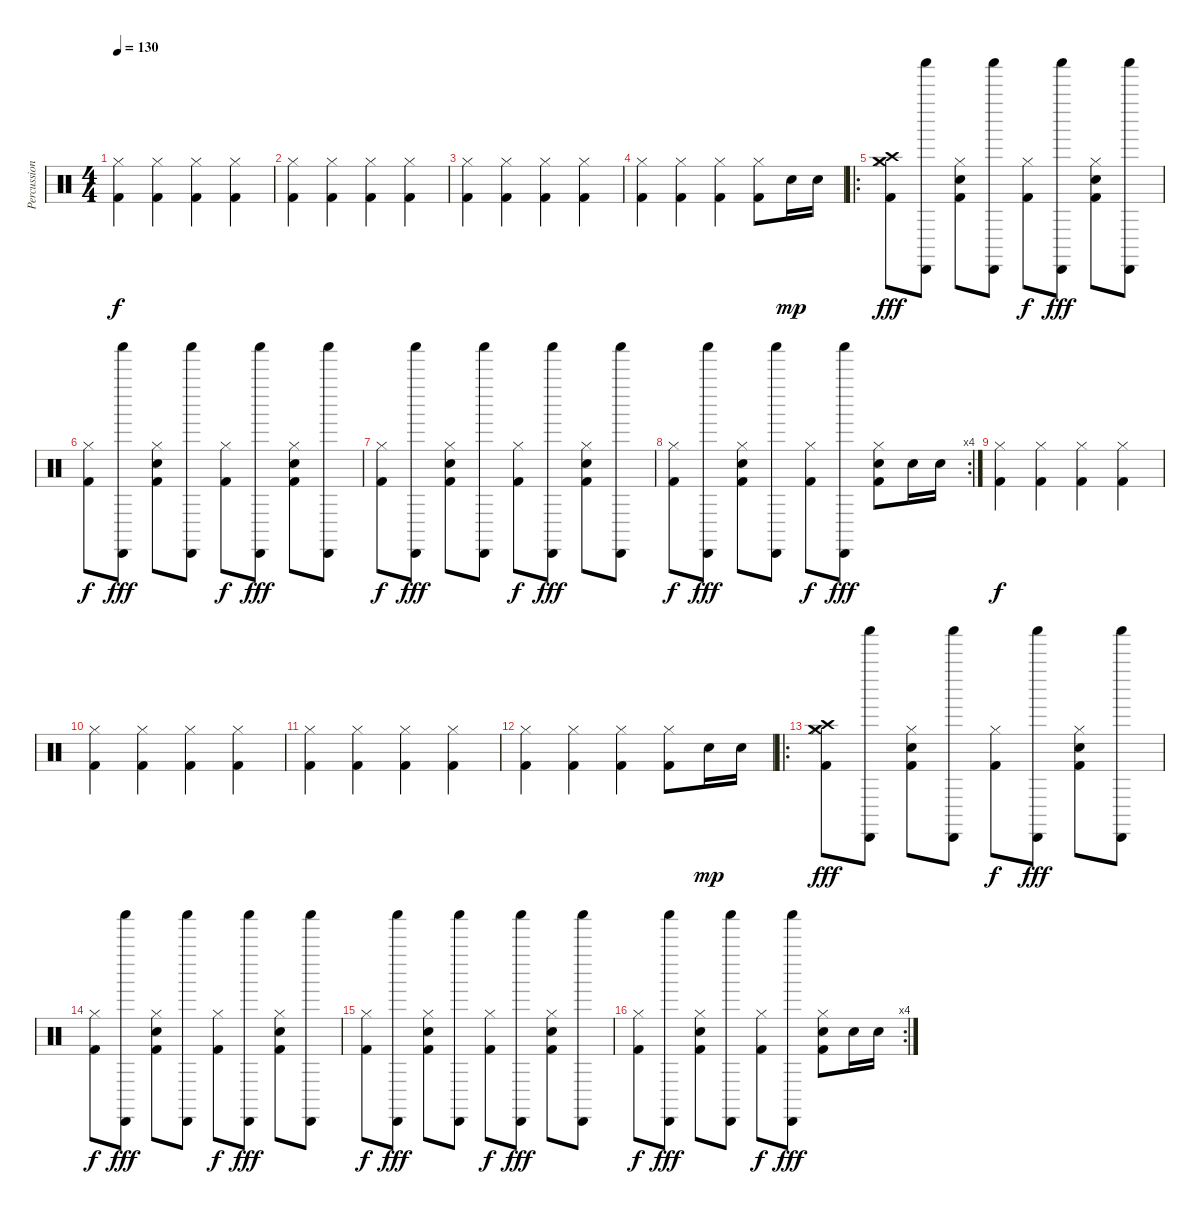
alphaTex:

\track ("Percussion" "Percussion") {instrument percussion}
\staff {score}
\articulation defaults
\ts (4 4)
\tempo 130
\clef neutral
\ks c
("Hi-Hat (closed)" "Kick (hit) 2").4{dy f} ("Hi-Hat (closed)" "Kick (hit) 2").4 ("Hi-Hat (closed)" "Kick (hit) 2").4 ("Hi-Hat (closed)" "Kick (hit) 2").4 |
("Hi-Hat (closed)" "Kick (hit) 2").4 ("Hi-Hat (closed)" "Kick (hit) 2").4 ("Hi-Hat (closed)" "Kick (hit) 2").4 ("Hi-Hat (closed)" "Kick (hit) 2").4 |
("Hi-Hat (closed)" "Kick (hit) 2").4 ("Hi-Hat (closed)" "Kick (hit) 2").4 ("Hi-Hat (closed)" "Kick (hit) 2").4 ("Hi-Hat (closed)" "Kick (hit) 2").4 |
("Hi-Hat (closed)" "Kick (hit) 2").4 ("Hi-Hat (closed)" "Kick (hit) 2").4 ("Hi-Hat (closed)" "Kick (hit) 2").4 ("Hi-Hat (closed)" "Kick (hit) 2").8 "Electric Snare (hit)".16{dy mp} "Electric Snare (hit)".16 |
\ro
("Crash medium (hit)" "Crash high (hit)" "Hi-Hat (closed)" "Kick (hit) 2").8{dy fff} ("Shaker (hit)" "Cabasa (hit)").8 ("Electric Snare (hit)" "Hi-Hat (closed)" "Kick (hit) 2").8 ("Shaker (hit)" "Cabasa (hit)").8 ("Hi-Hat (closed)" "Kick (hit) 2").8{dy f} ("Shaker (hit)" "Cabasa (hit)").8{dy fff} ("Electric Snare (hit)" "Hi-Hat (closed)" "Kick (hit) 2").8 ("Shaker (hit)" "Cabasa (hit)").8 |
("Hi-Hat (closed)" "Kick (hit) 2").8{dy f} ("Shaker (hit)" "Cabasa (hit)").8{dy fff} ("Electric Snare (hit)" "Hi-Hat (closed)" "Kick (hit) 2").8 ("Shaker (hit)" "Cabasa (hit)").8 ("Hi-Hat (closed)" "Kick (hit) 2").8{dy f} ("Shaker (hit)" "Cabasa (hit)").8{dy fff} ("Electric Snare (hit)" "Hi-Hat (closed)" "Kick (hit) 2").8 ("Shaker (hit)" "Cabasa (hit)").8 |
("Hi-Hat (closed)" "Kick (hit) 2").8{dy f} ("Shaker (hit)" "Cabasa (hit)").8{dy fff} ("Electric Snare (hit)" "Hi-Hat (closed)" "Kick (hit) 2").8 ("Shaker (hit)" "Cabasa (hit)").8 ("Hi-Hat (closed)" "Kick (hit) 2").8{dy f} ("Shaker (hit)" "Cabasa (hit)").8{dy fff} ("Electric Snare (hit)" "Hi-Hat (closed)" "Kick (hit) 2").8 ("Shaker (hit)" "Cabasa (hit)").8 |
\rc 4
("Hi-Hat (closed)" "Kick (hit) 2").8{dy f} ("Shaker (hit)" "Cabasa (hit)").8{dy fff} ("Electric Snare (hit)" "Hi-Hat (closed)" "Kick (hit) 2").8 ("Shaker (hit)" "Cabasa (hit)").8 ("Hi-Hat (closed)" "Kick (hit) 2").8{dy f} ("Shaker (hit)" "Cabasa (hit)").8{dy fff} ("Electric Snare (hit)" "Hi-Hat (closed)" "Kick (hit) 2").8 "Electric Snare (hit)".16 "Electric Snare (hit)".16 |
("Hi-Hat (closed)" "Kick (hit) 2").4{dy f} ("Hi-Hat (closed)" "Kick (hit) 2").4 ("Hi-Hat (closed)" "Kick (hit) 2").4 ("Hi-Hat (closed)" "Kick (hit) 2").4 |
("Hi-Hat (closed)" "Kick (hit) 2").4 ("Hi-Hat (closed)" "Kick (hit) 2").4 ("Hi-Hat (closed)" "Kick (hit) 2").4 ("Hi-Hat (closed)" "Kick (hit) 2").4 |
("Hi-Hat (closed)" "Kick (hit) 2").4 ("Hi-Hat (closed)" "Kick (hit) 2").4 ("Hi-Hat (closed)" "Kick (hit) 2").4 ("Hi-Hat (closed)" "Kick (hit) 2").4 |
("Hi-Hat (closed)" "Kick (hit) 2").4 ("Hi-Hat (closed)" "Kick (hit) 2").4 ("Hi-Hat (closed)" "Kick (hit) 2").4 ("Hi-Hat (closed)" "Kick (hit) 2").8 "Electric Snare (hit)".16{dy mp} "Electric Snare (hit)".16 |
\ro
("Crash medium (hit)" "Crash high (hit)" "Hi-Hat (closed)" "Kick (hit) 2").8{dy fff} ("Shaker (hit)" "Cabasa (hit)").8 ("Electric Snare (hit)" "Hi-Hat (closed)" "Kick (hit) 2").8 ("Shaker (hit)" "Cabasa (hit)").8 ("Hi-Hat (closed)" "Kick (hit) 2").8{dy f} ("Shaker (hit)" "Cabasa (hit)").8{dy fff} ("Electric Snare (hit)" "Hi-Hat (closed)" "Kick (hit) 2").8 ("Shaker (hit)" "Cabasa (hit)").8 |
("Hi-Hat (closed)" "Kick (hit) 2").8{dy f} ("Shaker (hit)" "Cabasa (hit)").8{dy fff} ("Electric Snare (hit)" "Hi-Hat (closed)" "Kick (hit) 2").8 ("Shaker (hit)" "Cabasa (hit)").8 ("Hi-Hat (closed)" "Kick (hit) 2").8{dy f} ("Shaker (hit)" "Cabasa (hit)").8{dy fff} ("Electric Snare (hit)" "Hi-Hat (closed)" "Kick (hit) 2").8 ("Shaker (hit)" "Cabasa (hit)").8 |
("Hi-Hat (closed)" "Kick (hit) 2").8{dy f} ("Shaker (hit)" "Cabasa (hit)").8{dy fff} ("Electric Snare (hit)" "Hi-Hat (closed)" "Kick (hit) 2").8 ("Shaker (hit)" "Cabasa (hit)").8 ("Hi-Hat (closed)" "Kick (hit) 2").8{dy f} ("Shaker (hit)" "Cabasa (hit)").8{dy fff} ("Electric Snare (hit)" "Hi-Hat (closed)" "Kick (hit) 2").8 ("Shaker (hit)" "Cabasa (hit)").8 |
\rc 4
("Hi-Hat (closed)" "Kick (hit) 2").8{dy f} ("Shaker (hit)" "Cabasa (hit)").8{dy fff} ("Electric Snare (hit)" "Hi-Hat (closed)" "Kick (hit) 2").8 ("Shaker (hit)" "Cabasa (hit)").8 ("Hi-Hat (closed)" "Kick (hit) 2").8{dy f} ("Shaker (hit)" "Cabasa (hit)").8{dy fff} ("Electric Snare (hit)" "Hi-Hat (closed)" "Kick (hit) 2").8 "Electric Snare (hit)".16 "Electric Snare (hit)".16
